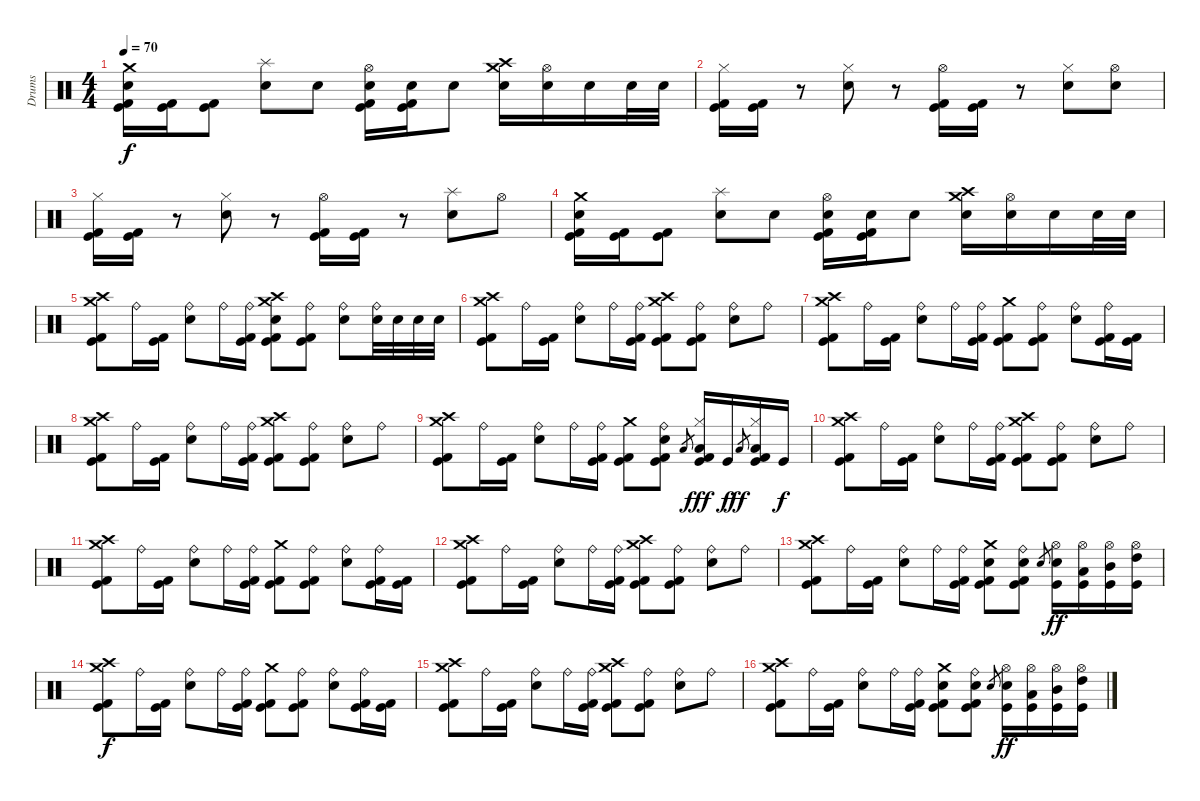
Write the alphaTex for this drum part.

\track ("Drums" "Drums") {instrument percussion}
\staff {score}
\articulation defaults
\ts (4 4)
\tempo 70
\clef neutral
\ks c
("Crash medium (hit)" "Electric Snare (hit)" "Kick (hit) 2" "Kick (hit)").16{dy f} ("Kick (hit) 2" "Kick (hit)").16 ("Kick (hit) 2" "Kick (hit)").8 ("Splash (hit)" "Electric Snare (hit)").8 "Electric Snare (hit)".8 ("Hi-Hat (open)" "Electric Snare (hit)" "Kick (hit) 2" "Kick (hit)").16 ("Electric Snare (hit)" "Kick (hit) 2" "Kick (hit)").16 "Electric Snare (hit)".8 ("Crash high (hit)" "Crash medium (hit)" "Electric Snare (hit)").16 ("Hi-Hat (open)" "Electric Snare (hit)").16 "Electric Snare (hit)".16 "Electric Snare (hit)".32 "Electric Snare (hit)".32 |
("Hi-Hat (closed)" "Kick (hit) 2" "Kick (hit)").16 ("Kick (hit) 2" "Kick (hit)").16 r.8 ("Hi-Hat (closed)" "Electric Snare (hit)").8 r.8 ("Hi-Hat (open)" "Kick (hit) 2" "Kick (hit)").16 ("Kick (hit) 2" "Kick (hit)").16 r.8 ("Hi-Hat (closed)" "Electric Snare (hit)").8 ("Hi-Hat (open)" "Electric Snare (hit)").8 |
("Hi-Hat (closed)" "Kick (hit) 2" "Kick (hit)").16 ("Kick (hit) 2" "Kick (hit)").16 r.8 ("Hi-Hat (closed)" "Electric Snare (hit)").8 r.8 ("Hi-Hat (open)" "Kick (hit) 2" "Kick (hit)").16 ("Kick (hit) 2" "Kick (hit)").16 r.8 ("Splash (hit)" "Electric Snare (hit)").8 "Hi-Hat (open)".8 |
("Crash medium (hit)" "Electric Snare (hit)" "Kick (hit) 2" "Kick (hit)").16 ("Kick (hit) 2" "Kick (hit)").16 ("Kick (hit) 2" "Kick (hit)").8 ("Splash (hit)" "Electric Snare (hit)").8 "Electric Snare (hit)".8 ("Hi-Hat (open)" "Electric Snare (hit)" "Kick (hit) 2" "Kick (hit)").16 ("Electric Snare (hit)" "Kick (hit) 2" "Kick (hit)").16 "Electric Snare (hit)".8 ("Crash high (hit)" "Crash medium (hit)" "Electric Snare (hit)").16 ("Hi-Hat (open)" "Electric Snare (hit)").16 "Electric Snare (hit)".16 "Electric Snare (hit)".32 "Electric Snare (hit)".32 |
("Crash medium (hit)" "Crash high (hit)" "Kick (hit) 2" "Kick (hit)").8 "Ride (bell)".16 ("Kick (hit) 2" "Kick (hit)").16 ("Ride (bell)" "Electric Snare (hit)").8 "Ride (bell)".16 ("Ride (bell)" "Kick (hit) 2" "Kick (hit)").16 ("Crash medium (hit)" "Crash high (hit)" "Electric Snare (hit)" "Kick (hit) 2" "Kick (hit)").8 ("Ride (bell)" "Kick (hit) 2" "Kick (hit)").8 ("Ride (bell)" "Electric Snare (hit)").8 ("Ride (bell)" "Electric Snare (hit)").32 "Electric Snare (hit)".32 "Electric Snare (hit)".32 "Electric Snare (hit)".32 |
("Crash medium (hit)" "Crash high (hit)" "Kick (hit) 2" "Kick (hit)").8 "Ride (bell)".16 ("Kick (hit) 2" "Kick (hit)").16 ("Ride (bell)" "Electric Snare (hit)").8 "Ride (bell)".16 ("Ride (bell)" "Kick (hit) 2" "Kick (hit)").16 ("Crash medium (hit)" "Crash high (hit)" "Kick (hit) 2" "Kick (hit)").8 ("Ride (bell)" "Kick (hit) 2" "Kick (hit)").8 ("Ride (bell)" "Electric Snare (hit)").8 "Ride (bell)".8 |
("Crash medium (hit)" "Crash high (hit)" "Kick (hit) 2" "Kick (hit)").8 "Ride (bell)".16 ("Kick (hit) 2" "Kick (hit)").16 ("Ride (bell)" "Electric Snare (hit)").8 "Ride (bell)".16 ("Ride (bell)" "Kick (hit) 2" "Kick (hit)").16 ("Crash medium (hit)" "Kick (hit) 2" "Kick (hit)").8 ("Ride (bell)" "Kick (hit) 2" "Kick (hit)").8 ("Ride (bell)" "Electric Snare (hit)").8 ("Ride (bell)" "Kick (hit) 2" "Kick (hit)").16 ("Kick (hit) 2" "Kick (hit)").16 |
("Crash medium (hit)" "Crash high (hit)" "Kick (hit) 2" "Kick (hit)").8 "Ride (bell)".16 ("Kick (hit) 2" "Kick (hit)").16 ("Ride (bell)" "Electric Snare (hit)").8 "Ride (bell)".16 ("Ride (bell)" "Kick (hit) 2" "Kick (hit)").16 ("Crash medium (hit)" "Crash high (hit)" "Kick (hit) 2" "Kick (hit)").8 ("Ride (bell)" "Kick (hit) 2" "Kick (hit)").8 ("Ride (bell)" "Electric Snare (hit)").8 "Ride (bell)".8 |
("Crash medium (hit)" "Crash high (hit)" "Kick (hit) 2" "Kick (hit)").8 "Ride (bell)".16 ("Kick (hit) 2" "Kick (hit)").16 ("Ride (bell)" "Electric Snare (hit)").8 "Ride (bell)".16 ("Ride (bell)" "Kick (hit) 2" "Kick (hit)").16 ("Crash medium (hit)" "Kick (hit) 2" "Kick (hit)").8 ("Ride (bell)" "Electric Snare (hit)" "Kick (hit) 2" "Kick (hit)").8 "Low Tom (hit)".8{gr} ("Hi-Hat (closed)" "Low Tom (hit)" "Kick (hit) 2" "Kick (hit)").16{dy fff} "Kick (hit)".16{dy f} "Low Tom (hit)".8{gr dy ff} ("Hi-Hat (closed)" "Low Tom (hit)" "Kick (hit) 2" "Kick (hit)").16 "Kick (hit)".16{dy f} |
("Crash medium (hit)" "Crash high (hit)" "Kick (hit) 2" "Kick (hit)").8 "Ride (bell)".16 ("Kick (hit) 2" "Kick (hit)").16 ("Ride (bell)" "Electric Snare (hit)").8 "Ride (bell)".16 ("Ride (bell)" "Kick (hit) 2" "Kick (hit)").16 ("Crash medium (hit)" "Crash high (hit)" "Kick (hit) 2" "Kick (hit)").8 ("Ride (bell)" "Kick (hit) 2" "Kick (hit)").8 ("Ride (bell)" "Electric Snare (hit)").8 "Ride (bell)".8 |
("Crash medium (hit)" "Crash high (hit)" "Kick (hit) 2" "Kick (hit)").8 "Ride (bell)".16 ("Kick (hit) 2" "Kick (hit)").16 ("Ride (bell)" "Electric Snare (hit)").8 "Ride (bell)".16 ("Ride (bell)" "Kick (hit) 2" "Kick (hit)").16 ("Crash medium (hit)" "Kick (hit) 2" "Kick (hit)").8 ("Ride (bell)" "Kick (hit) 2" "Kick (hit)").8 ("Ride (bell)" "Electric Snare (hit)").8 ("Ride (bell)" "Kick (hit) 2" "Kick (hit)").16 ("Kick (hit) 2" "Kick (hit)").16 |
("Crash medium (hit)" "Crash high (hit)" "Kick (hit) 2" "Kick (hit)").8 "Ride (bell)".16 ("Kick (hit) 2" "Kick (hit)").16 ("Ride (bell)" "Electric Snare (hit)").8 "Ride (bell)".16 ("Ride (bell)" "Kick (hit) 2" "Kick (hit)").16 ("Crash medium (hit)" "Crash high (hit)" "Kick (hit) 2" "Kick (hit)").8 ("Ride (bell)" "Kick (hit) 2" "Kick (hit)").8 ("Ride (bell)" "Electric Snare (hit)").8 "Ride (bell)".8 |
("Crash medium (hit)" "Crash high (hit)" "Kick (hit) 2" "Kick (hit)").8 "Ride (bell)".16 ("Kick (hit) 2" "Kick (hit)").16 ("Ride (bell)" "Electric Snare (hit)").8 "Ride (bell)".16 ("Ride (bell)" "Kick (hit) 2" "Kick (hit)").16 ("Crash medium (hit)" "Electric Snare (hit)" "Kick (hit) 2" "Kick (hit)").8 ("Ride (bell)" "Electric Snare (hit)" "Kick (hit) 2" "Kick (hit)").8 "Electric Snare (hit)".8{gr} ("Hi-Hat (open)" "Electric Snare (hit)" "Kick (hit)").16{dy ff} ("Hi-Hat (open)" "Low Tom (hit)" "Kick (hit)").16 ("Hi-Hat (open)" "Mid Tom (hit)" "Kick (hit)").16 ("Hi-Hat (open)" "High Tom (hit)" "Kick (hit)").16 |
("Crash medium (hit)" "Crash high (hit)" "Kick (hit) 2" "Kick (hit)").8{dy f} "Ride (bell)".16 ("Kick (hit) 2" "Kick (hit)").16 ("Ride (bell)" "Electric Snare (hit)").8 "Ride (bell)".16 ("Ride (bell)" "Kick (hit) 2" "Kick (hit)").16 ("Crash medium (hit)" "Kick (hit) 2" "Kick (hit)").8 ("Ride (bell)" "Kick (hit) 2" "Kick (hit)").8 ("Ride (bell)" "Electric Snare (hit)").8 ("Ride (bell)" "Kick (hit) 2" "Kick (hit)").16 ("Kick (hit) 2" "Kick (hit)").16 |
("Crash medium (hit)" "Crash high (hit)" "Kick (hit) 2" "Kick (hit)").8 "Ride (bell)".16 ("Kick (hit) 2" "Kick (hit)").16 ("Ride (bell)" "Electric Snare (hit)").8 "Ride (bell)".16 ("Ride (bell)" "Kick (hit) 2" "Kick (hit)").16 ("Crash medium (hit)" "Crash high (hit)" "Kick (hit) 2" "Kick (hit)").8 ("Ride (bell)" "Kick (hit) 2" "Kick (hit)").8 ("Ride (bell)" "Electric Snare (hit)").8 "Ride (bell)".8 |
("Crash medium (hit)" "Crash high (hit)" "Kick (hit) 2" "Kick (hit)").8 "Ride (bell)".16 ("Kick (hit) 2" "Kick (hit)").16 ("Ride (bell)" "Electric Snare (hit)").8 "Ride (bell)".16 ("Ride (bell)" "Kick (hit) 2" "Kick (hit)").16 ("Crash medium (hit)" "Electric Snare (hit)" "Kick (hit) 2" "Kick (hit)").8 ("Ride (bell)" "Electric Snare (hit)" "Kick (hit) 2" "Kick (hit)").8 "Electric Snare (hit)".8{gr} ("Hi-Hat (open)" "Electric Snare (hit)" "Kick (hit)").16{dy ff} ("Hi-Hat (open)" "Low Tom (hit)" "Kick (hit)").16 ("Hi-Hat (open)" "Mid Tom (hit)" "Kick (hit)").16 ("Hi-Hat (open)" "High Tom (hit)" "Kick (hit)").16
